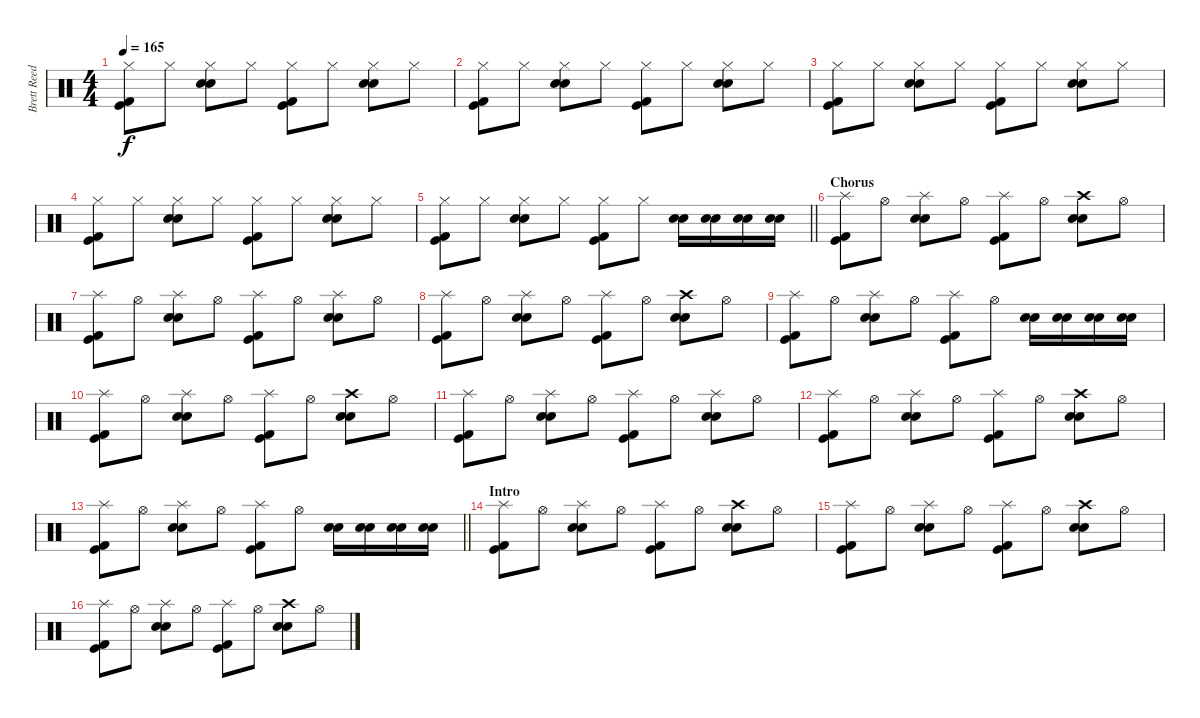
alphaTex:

\track ("Brett Reed" "Brett Reed") {instrument percussion}
\staff {score}
\articulation defaults
\ts (4 4)
\tempo 165
\clef neutral
\ks c
("Hi-Hat (closed)" "Kick (hit) 2" "Kick (hit)").8{dy f} "Hi-Hat (closed)".8 ("Hi-Hat (closed)" "Electric Snare (hit)" "Snare (hit) 2").8 "Hi-Hat (closed)".8 ("Hi-Hat (closed)" "Kick (hit) 2" "Kick (hit)").8 "Hi-Hat (closed)".8 ("Hi-Hat (closed)" "Electric Snare (hit)" "Snare (hit) 2").8 "Hi-Hat (closed)".8 |
("Hi-Hat (closed)" "Kick (hit) 2" "Kick (hit)").8 "Hi-Hat (closed)".8 ("Hi-Hat (closed)" "Electric Snare (hit)" "Snare (hit) 2").8 "Hi-Hat (closed)".8 ("Hi-Hat (closed)" "Kick (hit) 2" "Kick (hit)").8 "Hi-Hat (closed)".8 ("Hi-Hat (closed)" "Electric Snare (hit)" "Snare (hit) 2").8 "Hi-Hat (closed)".8 |
("Hi-Hat (closed)" "Kick (hit) 2" "Kick (hit)").8 "Hi-Hat (closed)".8 ("Hi-Hat (closed)" "Electric Snare (hit)" "Snare (hit) 2").8 "Hi-Hat (closed)".8 ("Hi-Hat (closed)" "Kick (hit) 2" "Kick (hit)").8 "Hi-Hat (closed)".8 ("Hi-Hat (closed)" "Electric Snare (hit)" "Snare (hit) 2").8 "Hi-Hat (closed)".8 |
("Hi-Hat (closed)" "Kick (hit) 2" "Kick (hit)").8 "Hi-Hat (closed)".8 ("Hi-Hat (closed)" "Electric Snare (hit)" "Snare (hit) 2").8 "Hi-Hat (closed)".8 ("Hi-Hat (closed)" "Kick (hit) 2" "Kick (hit)").8 "Hi-Hat (closed)".8 ("Hi-Hat (closed)" "Electric Snare (hit)" "Snare (hit) 2").8 "Hi-Hat (closed)".8 |
\barLineRight lightlight
("Hi-Hat (closed)" "Kick (hit) 2" "Kick (hit)").8 "Hi-Hat (closed)".8 ("Hi-Hat (closed)" "Electric Snare (hit)" "Snare (hit) 2").8 "Hi-Hat (closed)".8 ("Hi-Hat (closed)" "Kick (hit) 2" "Kick (hit)").8 "Hi-Hat (closed)".8 ("Electric Snare (hit)" "Snare (hit) 2").16 ("Electric Snare (hit)" "Snare (hit) 2").16 ("Electric Snare (hit)" "Snare (hit) 2").16 ("Electric Snare (hit)" "Snare (hit) 2").16 |
\section ("" "Chorus")
("Splash (hit)" "Kick (hit) 2" "Kick (hit)").8 "Hi-Hat (open)".8 ("Splash (hit)" "Electric Snare (hit)" "Snare (hit) 2").8 "Hi-Hat (open)".8 ("Splash (hit)" "Kick (hit) 2" "Kick (hit)").8 "Hi-Hat (open)".8 ("Crash high (hit)" "Electric Snare (hit)" "Snare (hit) 2").8 "Hi-Hat (open)".8 |
("Splash (hit)" "Kick (hit) 2" "Kick (hit)").8 "Hi-Hat (open)".8 ("Splash (hit)" "Electric Snare (hit)" "Snare (hit) 2").8 "Hi-Hat (open)".8 ("Splash (hit)" "Kick (hit) 2" "Kick (hit)").8 "Hi-Hat (open)".8 ("Splash (hit)" "Electric Snare (hit)" "Snare (hit) 2").8 "Hi-Hat (open)".8 |
("Splash (hit)" "Kick (hit) 2" "Kick (hit)").8 "Hi-Hat (open)".8 ("Splash (hit)" "Electric Snare (hit)" "Snare (hit) 2").8 "Hi-Hat (open)".8 ("Splash (hit)" "Kick (hit) 2" "Kick (hit)").8 "Hi-Hat (open)".8 ("Crash high (hit)" "Electric Snare (hit)" "Snare (hit) 2").8 "Hi-Hat (open)".8 |
("Splash (hit)" "Kick (hit) 2" "Kick (hit)").8 "Hi-Hat (open)".8 ("Splash (hit)" "Electric Snare (hit)" "Snare (hit) 2").8 "Hi-Hat (open)".8 ("Splash (hit)" "Kick (hit) 2" "Kick (hit)").8 "Hi-Hat (open)".8 ("Electric Snare (hit)" "Snare (hit) 2").16 ("Electric Snare (hit)" "Snare (hit) 2").16 ("Electric Snare (hit)" "Snare (hit) 2").16 ("Electric Snare (hit)" "Snare (hit) 2").16 |
("Splash (hit)" "Kick (hit) 2" "Kick (hit)").8 "Hi-Hat (open)".8 ("Splash (hit)" "Electric Snare (hit)" "Snare (hit) 2").8 "Hi-Hat (open)".8 ("Splash (hit)" "Kick (hit) 2" "Kick (hit)").8 "Hi-Hat (open)".8 ("Crash high (hit)" "Electric Snare (hit)" "Snare (hit) 2").8 "Hi-Hat (open)".8 |
("Splash (hit)" "Kick (hit) 2" "Kick (hit)").8 "Hi-Hat (open)".8 ("Splash (hit)" "Electric Snare (hit)" "Snare (hit) 2").8 "Hi-Hat (open)".8 ("Splash (hit)" "Kick (hit) 2" "Kick (hit)").8 "Hi-Hat (open)".8 ("Splash (hit)" "Electric Snare (hit)" "Snare (hit) 2").8 "Hi-Hat (open)".8 |
("Splash (hit)" "Kick (hit) 2" "Kick (hit)").8 "Hi-Hat (open)".8 ("Splash (hit)" "Electric Snare (hit)" "Snare (hit) 2").8 "Hi-Hat (open)".8 ("Splash (hit)" "Kick (hit) 2" "Kick (hit)").8 "Hi-Hat (open)".8 ("Crash high (hit)" "Electric Snare (hit)" "Snare (hit) 2").8 "Hi-Hat (open)".8 |
\barLineRight lightlight
("Splash (hit)" "Kick (hit) 2" "Kick (hit)").8 "Hi-Hat (open)".8 ("Splash (hit)" "Electric Snare (hit)" "Snare (hit) 2").8 "Hi-Hat (open)".8 ("Splash (hit)" "Kick (hit) 2" "Kick (hit)").8 "Hi-Hat (open)".8 ("Electric Snare (hit)" "Snare (hit) 2").16 ("Electric Snare (hit)" "Snare (hit) 2").16 ("Electric Snare (hit)" "Snare (hit) 2").16 ("Electric Snare (hit)" "Snare (hit) 2").16 |
\section ("" "Intro")
("Splash (hit)" "Kick (hit) 2" "Kick (hit)").8 "Hi-Hat (open)".8 ("Splash (hit)" "Electric Snare (hit)" "Snare (hit) 2").8 "Hi-Hat (open)".8 ("Splash (hit)" "Kick (hit) 2" "Kick (hit)").8 "Hi-Hat (open)".8 ("Crash high (hit)" "Electric Snare (hit)" "Snare (hit) 2").8 "Hi-Hat (open)".8 |
("Splash (hit)" "Kick (hit) 2" "Kick (hit)").8 "Hi-Hat (open)".8 ("Splash (hit)" "Electric Snare (hit)" "Snare (hit) 2").8 "Hi-Hat (open)".8 ("Splash (hit)" "Kick (hit) 2" "Kick (hit)").8 "Hi-Hat (open)".8 ("Crash high (hit)" "Electric Snare (hit)" "Snare (hit) 2").8 "Hi-Hat (open)".8 |
("Splash (hit)" "Kick (hit) 2" "Kick (hit)").8 "Hi-Hat (open)".8 ("Splash (hit)" "Electric Snare (hit)" "Snare (hit) 2").8 "Hi-Hat (open)".8 ("Splash (hit)" "Kick (hit) 2" "Kick (hit)").8 "Hi-Hat (open)".8 ("Crash high (hit)" "Electric Snare (hit)" "Snare (hit) 2").8 "Hi-Hat (open)".8
